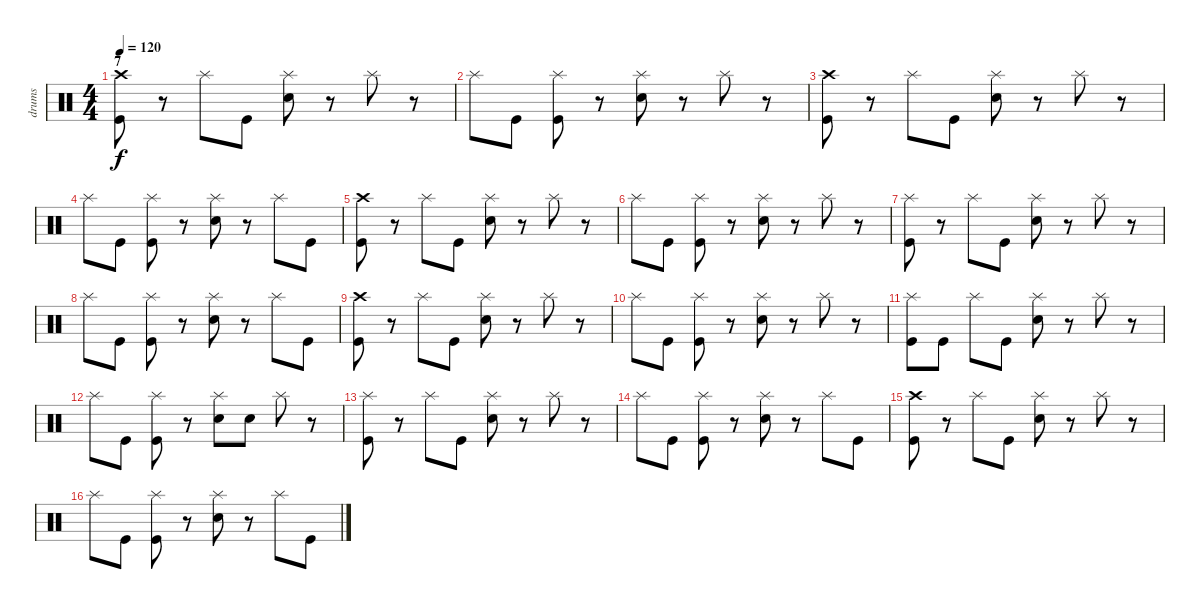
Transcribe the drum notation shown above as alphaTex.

\track ("drums" "drums") {instrument percussion}
\staff {score}
\articulation defaults
\ts (4 4)
\section ("" "7")
\tempo 120
\clef neutral
\ks c
("Crash high (hit)" "Kick (hit)").8{dy f} r.8 "Splash (hit)".8 "Kick (hit)".8 ("Splash (hit)" "Electric Snare (hit)").8 r.8 "Splash (hit)".8 r.8 |
"Splash (hit)".8 "Kick (hit)".8 ("Splash (hit)" "Kick (hit)").8 r.8 ("Splash (hit)" "Electric Snare (hit)").8 r.8 "Splash (hit)".8 r.8 |
("Crash high (hit)" "Kick (hit)").8 r.8 "Splash (hit)".8 "Kick (hit)".8 ("Splash (hit)" "Electric Snare (hit)").8 r.8 "Splash (hit)".8 r.8 |
"Splash (hit)".8 "Kick (hit)".8 ("Splash (hit)" "Kick (hit)").8 r.8 ("Splash (hit)" "Electric Snare (hit)").8 r.8 "Splash (hit)".8 "Kick (hit)".8 |
("Crash high (hit)" "Kick (hit)").8 r.8 "Splash (hit)".8 "Kick (hit)".8 ("Splash (hit)" "Electric Snare (hit)").8 r.8 "Splash (hit)".8 r.8 |
"Splash (hit)".8 "Kick (hit)".8 ("Splash (hit)" "Kick (hit)").8 r.8 ("Splash (hit)" "Electric Snare (hit)").8 r.8 "Splash (hit)".8 r.8 |
("Splash (hit)" "Kick (hit)").8 r.8 "Splash (hit)".8 "Kick (hit)".8 ("Splash (hit)" "Electric Snare (hit)").8 r.8 "Splash (hit)".8 r.8 |
"Splash (hit)".8 "Kick (hit)".8 ("Splash (hit)" "Kick (hit)").8 r.8 ("Splash (hit)" "Electric Snare (hit)").8 r.8 "Splash (hit)".8 "Kick (hit)".8 |
("Crash high (hit)" "Kick (hit)").8 r.8 "Splash (hit)".8 "Kick (hit)".8 ("Splash (hit)" "Electric Snare (hit)").8 r.8 "Splash (hit)".8 r.8 |
"Splash (hit)".8 "Kick (hit)".8 ("Splash (hit)" "Kick (hit)").8 r.8 ("Splash (hit)" "Electric Snare (hit)").8 r.8 "Splash (hit)".8 r.8 |
("Splash (hit)" "Kick (hit)").8 "Kick (hit)".8 "Splash (hit)".8 "Kick (hit)".8 ("Splash (hit)" "Electric Snare (hit)").8 r.8 "Splash (hit)".8 r.8 |
"Splash (hit)".8 "Kick (hit)".8 ("Splash (hit)" "Kick (hit)").8 r.8 ("Splash (hit)" "Electric Snare (hit)").8 "Electric Snare (hit)".8 "Splash (hit)".8 r.8 |
("Splash (hit)" "Kick (hit)").8 r.8 "Splash (hit)".8 "Kick (hit)".8 ("Splash (hit)" "Electric Snare (hit)").8 r.8 "Splash (hit)".8 r.8 |
"Splash (hit)".8 "Kick (hit)".8 ("Splash (hit)" "Kick (hit)").8 r.8 ("Splash (hit)" "Electric Snare (hit)").8 r.8 "Splash (hit)".8 "Kick (hit)".8 |
("Crash high (hit)" "Kick (hit)").8 r.8 "Splash (hit)".8 "Kick (hit)".8 ("Splash (hit)" "Electric Snare (hit)").8 r.8 "Splash (hit)".8 r.8 |
"Splash (hit)".8 "Kick (hit)".8 ("Splash (hit)" "Kick (hit)").8 r.8 ("Splash (hit)" "Electric Snare (hit)").8 r.8 "Splash (hit)".8 "Kick (hit)".8
